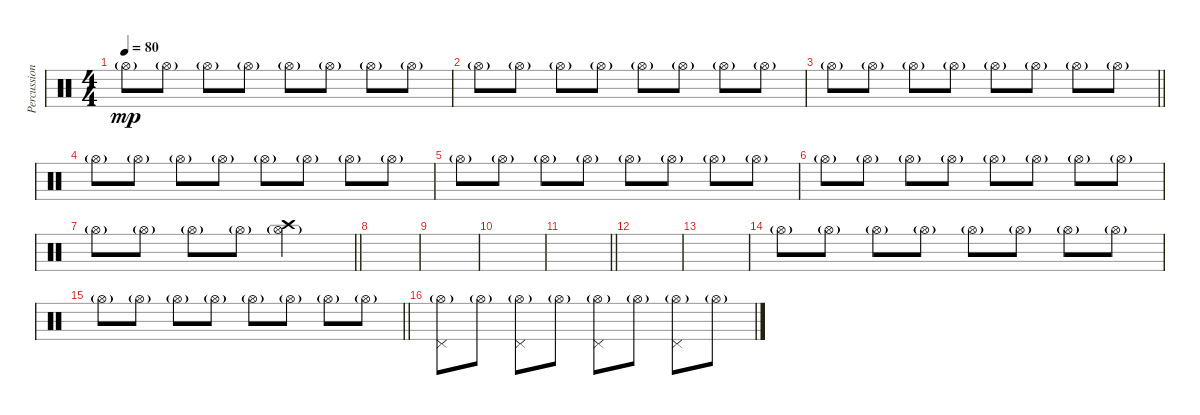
\track ("Percussion" "Percussion") {instrument percussion}
\staff {score}
\articulation defaults
\ts (4 4)
\tempo 80
\clef neutral
\ks c "Hi-Hat (open)"{g}.8{dy mp} "Hi-Hat (open)"{g}.8 "Hi-Hat (open)"{g}.8 "Hi-Hat (open)"{g}.8 "Hi-Hat (open)"{g}.8 "Hi-Hat (open)"{g}.8 "Hi-Hat (open)"{g}.8 "Hi-Hat (open)"{g}.8
|
"Hi-Hat (open)"{g}.8 "Hi-Hat (open)"{g}.8 "Hi-Hat (open)"{g}.8 "Hi-Hat (open)"{g}.8 "Hi-Hat (open)"{g}.8 "Hi-Hat (open)"{g}.8 "Hi-Hat (open)"{g}.8 "Hi-Hat (open)"{g}.8 |
\barLineRight lightlight "Hi-Hat (open)"{g}.8 "Hi-Hat (open)"{g}.8 "Hi-Hat (open)"{g}.8 "Hi-Hat (open)"{g}.8 "Hi-Hat (open)"{g}.8 "Hi-Hat (open)"{g}.8 "Hi-Hat (open)"{g}.8 "Hi-Hat (open)"{g}.8
|
"Hi-Hat (open)"{g}.8 "Hi-Hat (open)"{g}.8 "Hi-Hat (open)"{g}.8 "Hi-Hat (open)"{g}.8 "Hi-Hat (open)"{g}.8 "Hi-Hat (open)"{g}.8 "Hi-Hat (open)"{g}.8 "Hi-Hat (open)"{g}.8 |
"Hi-Hat (open)"{g}.8 "Hi-Hat (open)"{g}.8 "Hi-Hat (open)"{g}.8 "Hi-Hat (open)"{g}.8 "Hi-Hat (open)"{g}.8 "Hi-Hat (open)"{g}.8 "Hi-Hat (open)"{g}.8 "Hi-Hat (open)"{g}.8 |
"Hi-Hat (open)"{g}.8 "Hi-Hat (open)"{g}.8 "Hi-Hat (open)"{g}.8 "Hi-Hat (open)"{g}.8 "Hi-Hat (open)"{g}.8 "Hi-Hat (open)"{g}.8 "Hi-Hat (open)"{g}.8 "Hi-Hat (open)"{g}.8 |
\barLineRight lightlight "Hi-Hat (open)"{g}.8 "Hi-Hat (open)"{g}.8 "Hi-Hat (open)"{g}.8 "Hi-Hat (open)"{g}.8
("Hi-Hat (open)"{g} "Crash high (hit)").2 |
|
|
|
\barLineRight lightlight
|
|
|
"Hi-Hat (open)"{g}.8 "Hi-Hat (open)"{g}.8 "Hi-Hat (open)"{g}.8 "Hi-Hat (open)"{g}.8 "Hi-Hat (open)"{g}.8 "Hi-Hat (open)"{g}.8 "Hi-Hat (open)"{g}.8 "Hi-Hat (open)"{g}.8 |
\barLineRight lightlight "Hi-Hat (open)"{g}.8 "Hi-Hat (open)"{g}.8 "Hi-Hat (open)"{g}.8 "Hi-Hat (open)"{g}.8 "Hi-Hat (open)"{g}.8 "Hi-Hat (open)"{g}.8 "Hi-Hat (open)"{g}.8 "Hi-Hat (open)"{g}.8
|
("Hi-Hat (open)"{g} "Pedal Hi-Hat (hit)").8 "Hi-Hat (open)"{g}.8 ("Hi-Hat (open)"{g} "Pedal Hi-Hat (hit)").8 "Hi-Hat (open)"{g}.8 ("Hi-Hat (open)"{g} "Pedal Hi-Hat (hit)").8 "Hi-Hat (open)"{g}.8 ("Hi-Hat (open)"{g} "Pedal Hi-Hat (hit)").8 "Hi-Hat (open)"{g}.8
